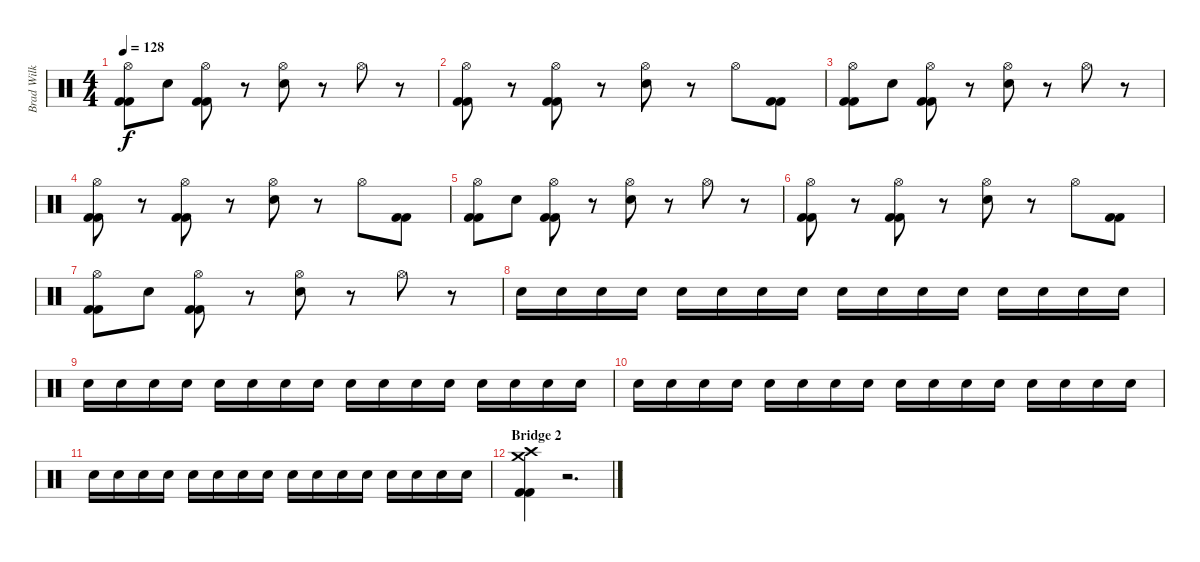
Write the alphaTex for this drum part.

\track ("Brad Wilk" "Brad Wilk") {instrument percussion}
\staff {score}
\articulation defaults
\ts (4 4)
\tempo 128
\clef neutral
\ks c
("Hi-Hat (open)" "Kick (hit) 2" "Kick (hit) 2").8{dy f} "Electric Snare (hit)".8 ("Hi-Hat (open)" "Kick (hit) 2" "Kick (hit) 2").8 r.8 ("Hi-Hat (open)" "Electric Snare (hit)").8 r.8 "Hi-Hat (open)".8 r.8 |
("Hi-Hat (open)" "Kick (hit) 2" "Kick (hit) 2").8 r.8 ("Hi-Hat (open)" "Kick (hit) 2" "Kick (hit) 2").8 r.8 ("Hi-Hat (open)" "Electric Snare (hit)").8 r.8 "Hi-Hat (open)".8 ("Kick (hit) 2" "Kick (hit) 2").8 |
("Hi-Hat (open)" "Kick (hit) 2" "Kick (hit) 2").8 "Electric Snare (hit)".8 ("Hi-Hat (open)" "Kick (hit) 2" "Kick (hit) 2").8 r.8 ("Hi-Hat (open)" "Electric Snare (hit)").8 r.8 "Hi-Hat (open)".8 r.8 |
("Hi-Hat (open)" "Kick (hit) 2" "Kick (hit) 2").8 r.8 ("Hi-Hat (open)" "Kick (hit) 2" "Kick (hit) 2").8 r.8 ("Hi-Hat (open)" "Electric Snare (hit)").8 r.8 "Hi-Hat (open)".8 ("Kick (hit) 2" "Kick (hit) 2").8 |
("Hi-Hat (open)" "Kick (hit) 2" "Kick (hit) 2").8 "Electric Snare (hit)".8 ("Hi-Hat (open)" "Kick (hit) 2" "Kick (hit) 2").8 r.8 ("Hi-Hat (open)" "Electric Snare (hit)").8 r.8 "Hi-Hat (open)".8 r.8 |
("Hi-Hat (open)" "Kick (hit) 2" "Kick (hit) 2").8 r.8 ("Hi-Hat (open)" "Kick (hit) 2" "Kick (hit) 2").8 r.8 ("Hi-Hat (open)" "Electric Snare (hit)").8 r.8 "Hi-Hat (open)".8 ("Kick (hit) 2" "Kick (hit) 2").8 |
("Hi-Hat (open)" "Kick (hit) 2" "Kick (hit) 2").8 "Electric Snare (hit)".8 ("Hi-Hat (open)" "Kick (hit) 2" "Kick (hit) 2").8 r.8 ("Hi-Hat (open)" "Electric Snare (hit)").8 r.8 "Hi-Hat (open)".8 r.8 |
"Electric Snare (hit)".16 "Electric Snare (hit)".16 "Electric Snare (hit)".16 "Electric Snare (hit)".16 "Electric Snare (hit)".16 "Electric Snare (hit)".16 "Electric Snare (hit)".16 "Electric Snare (hit)".16 "Electric Snare (hit)".16 "Electric Snare (hit)".16 "Electric Snare (hit)".16 "Electric Snare (hit)".16 "Electric Snare (hit)".16 "Electric Snare (hit)".16 "Electric Snare (hit)".16 "Electric Snare (hit)".16 |
"Electric Snare (hit)".16 "Electric Snare (hit)".16 "Electric Snare (hit)".16 "Electric Snare (hit)".16 "Electric Snare (hit)".16 "Electric Snare (hit)".16 "Electric Snare (hit)".16 "Electric Snare (hit)".16 "Electric Snare (hit)".16 "Electric Snare (hit)".16 "Electric Snare (hit)".16 "Electric Snare (hit)".16 "Electric Snare (hit)".16 "Electric Snare (hit)".16 "Electric Snare (hit)".16 "Electric Snare (hit)".16 |
"Electric Snare (hit)".16 "Electric Snare (hit)".16 "Electric Snare (hit)".16 "Electric Snare (hit)".16 "Electric Snare (hit)".16 "Electric Snare (hit)".16 "Electric Snare (hit)".16 "Electric Snare (hit)".16 "Electric Snare (hit)".16 "Electric Snare (hit)".16 "Electric Snare (hit)".16 "Electric Snare (hit)".16 "Electric Snare (hit)".16 "Electric Snare (hit)".16 "Electric Snare (hit)".16 "Electric Snare (hit)".16 |
"Electric Snare (hit)".16 "Electric Snare (hit)".16 "Electric Snare (hit)".16 "Electric Snare (hit)".16 "Electric Snare (hit)".16 "Electric Snare (hit)".16 "Electric Snare (hit)".16 "Electric Snare (hit)".16 "Electric Snare (hit)".16 "Electric Snare (hit)".16 "Electric Snare (hit)".16 "Electric Snare (hit)".16 "Electric Snare (hit)".16 "Electric Snare (hit)".16 "Electric Snare (hit)".16 "Electric Snare (hit)".16 |
\section ("" "Bridge 2")
("Crash medium (hit)" "Crash high (hit)" "Kick (hit) 2" "Kick (hit) 2").4 r.2{d}
